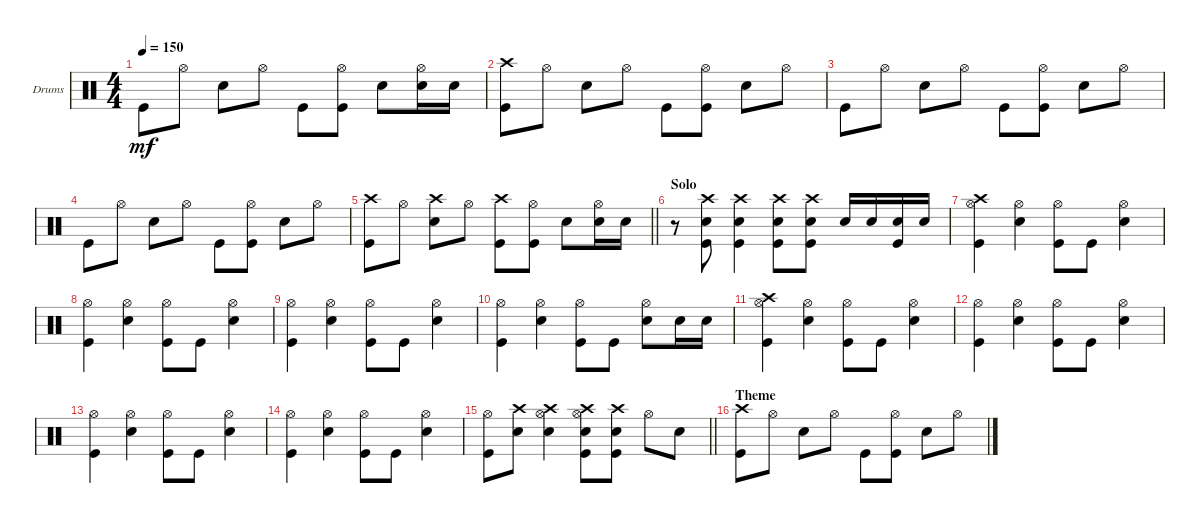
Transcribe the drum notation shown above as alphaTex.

\bracketExtendMode groupsimilarinstruments
\firstSystemTrackNameOrientation horizontal
\otherSystemsTrackNameOrientation horizontal
\track ("Percussion" "Drums") {instrument percussion}
\staff {score}
\articulation defaults
\ts (4 4)
\tempo 150
\clef neutral
\ks c "Kick (hit)".8{dy mf} "Hi-Hat (open)".8 "Snare (hit) 2".8 "Hi-Hat (open)".8 "Kick (hit)".8
("Hi-Hat (open)" "Kick (hit)").8 "Snare (hit) 2".8 ("Snare (hit) 2" "Hi-Hat (open)").16 "Snare (hit) 2".16 |
("Crash high (hit)" "Kick (hit)").8 "Hi-Hat (open)".8 "Snare (hit) 2".8 "Hi-Hat (open)".8 "Kick (hit)".8 ("Hi-Hat (open)" "Kick (hit)").8 "Snare (hit) 2".8 "Hi-Hat (open)".8 |
"Kick (hit)".8 "Hi-Hat (open)".8 "Snare (hit) 2".8 "Hi-Hat (open)".8 "Kick (hit)".8 ("Hi-Hat (open)" "Kick (hit)").8 "Snare (hit) 2".8 "Hi-Hat (open)".8 |
\scale
0.531279 "Kick (hit)".8 "Hi-Hat (open)".8 "Snare (hit) 2".8 "Hi-Hat (open)".8 "Kick (hit)".8 ("Hi-Hat (open)" "Kick (hit)").8 "Snare (hit) 2".8 "Hi-Hat (open)".8 |
\scale
0.468394
\barLineRight lightlight
("Crash high (hit)" "Kick (hit)").8 "Hi-Hat (open)".8 ("Crash high (hit)" "Snare (hit) 2").8 "Hi-Hat (open)".8 ("Crash high (hit)" "Kick (hit)").8 ("Hi-Hat (open)" "Kick (hit)").8 "Snare (hit) 2".8 ("Snare (hit) 2" "Hi-Hat (open)").16 "Snare (hit) 2".16 |
\section ("" "Solo")
\scale
0.512145 r.8 ("Snare (hit) 2" "Kick (hit)" "Crash high (hit)").8 ("Snare (hit) 2" "Kick (hit)" "Crash high (hit)").4 ("Snare (hit) 2" "Kick (hit)" "Crash high (hit)").8 ("Snare (hit) 2" "Kick (hit)" "Crash high (hit)").8 "Snare (hit) 2".16 "Snare (hit) 2".16 ("Snare (hit) 2" "Kick (hit)").16 "Snare (hit) 2".16 |
\scale
0.487835 ("Crash high (hit)" "Kick (hit)" "Hi-Hat (open)").4 ("Hi-Hat (open)" "Snare (hit) 2").4 ("Hi-Hat (open)" "Kick (hit)").8 "Kick (hit)".8 ("Hi-Hat (open)" "Snare (hit) 2").4 |
\scale
0.512453 ("Kick (hit)" "Hi-Hat (open)").4 ("Hi-Hat (open)" "Snare (hit) 2").4 ("Kick (hit)" "Hi-Hat (open)").8 "Kick (hit)".8 ("Snare (hit) 2" "Hi-Hat (open)").4 |
\scale
0.487609 ("Kick (hit)" "Hi-Hat (open)").4 ("Hi-Hat (open)" "Snare (hit) 2").4 ("Kick (hit)" "Hi-Hat (open)").8 "Kick (hit)".8 ("Hi-Hat (open)" "Snare (hit) 2").4 |
\scale
0.356663 ("Kick (hit)" "Hi-Hat (open)").4 ("Hi-Hat (open)" "Snare (hit) 2").4 ("Kick (hit)" "Hi-Hat (open)").8 "Kick (hit)".8 ("Hi-Hat (open)" "Snare (hit) 2").8 "Snare (hit) 2".16 "Snare (hit) 2".16 |
\scale
0.361221 ("Crash high (hit)" "Kick (hit)" "Hi-Hat (open)").4 ("Hi-Hat (open)" "Snare (hit) 2").4 ("Kick (hit)" "Hi-Hat (open)").8 "Kick (hit)".8 ("Snare (hit) 2" "Hi-Hat (open)").4 |
\scale
0.281744 ("Hi-Hat (open)" "Kick (hit)").4 ("Snare (hit) 2" "Hi-Hat (open)").4 ("Kick (hit)" "Hi-Hat (open)").8 "Kick (hit)".8 ("Hi-Hat (open)" "Snare (hit) 2").4 |
\scale
0.384179 ("Hi-Hat (open)" "Kick (hit)").4 ("Hi-Hat (open)" "Snare (hit) 2").4 ("Kick (hit)" "Hi-Hat (open)").8 "Kick (hit)".8 ("Snare (hit) 2" "Hi-Hat (open)").4 |
\scale
0.225909 ("Hi-Hat (open)" "Kick (hit)").4 ("Hi-Hat (open)" "Snare (hit) 2").4 ("Hi-Hat (open)" "Kick (hit)").8 "Kick (hit)".8 ("Snare (hit) 2" "Hi-Hat (open)").4 |
\scale
0.390013
\barLineRight lightlight
("Kick (hit)" "Hi-Hat (open)").8 ("Crash high (hit)" "Snare (hit) 2").8 ("Crash high (hit)" "Hi-Hat (open)" "Snare (hit) 2").4 ("Crash high (hit)" "Snare (hit) 2" "Kick (hit)" "Hi-Hat (open)").8 ("Crash high (hit)" "Snare (hit) 2" "Kick (hit)").8 "Hi-Hat (open)".8 "Snare (hit) 2".8 |
\section ("" "Theme")
("Crash high (hit)" "Kick (hit)").8 "Hi-Hat (open)".8 "Snare (hit) 2".8 "Hi-Hat (open)".8 "Kick (hit)".8 ("Hi-Hat (open)" "Kick (hit)").8 "Snare (hit) 2".8 "Hi-Hat (open)".8
